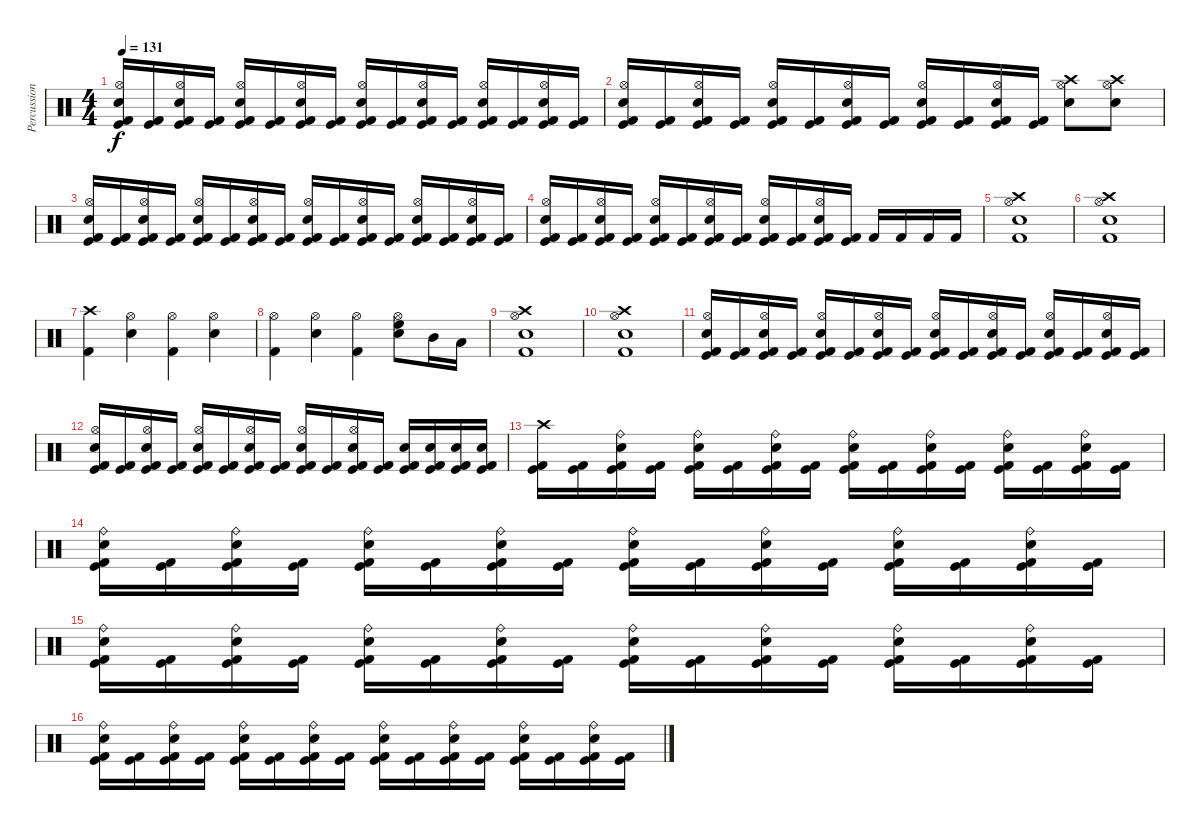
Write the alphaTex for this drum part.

\track ("Percussion" "Percussion") {instrument percussion}
\staff {score}
\articulation defaults
\ts (4 4)
\tempo 131
\clef neutral
\ks c
("Snare (hit) 2" "Hi-Hat (open)" "Kick (hit)" "Kick (hit) 2").16{dy f} ("Kick (hit)" "Kick (hit) 2").16 ("Snare (hit) 2" "Hi-Hat (open)" "Kick (hit)" "Kick (hit) 2").16 ("Kick (hit)" "Kick (hit) 2").16 ("Snare (hit) 2" "Hi-Hat (open)" "Kick (hit)" "Kick (hit) 2").16 ("Kick (hit)" "Kick (hit) 2").16 ("Snare (hit) 2" "Hi-Hat (open)" "Kick (hit)" "Kick (hit) 2").16 ("Kick (hit)" "Kick (hit) 2").16 ("Snare (hit) 2" "Hi-Hat (open)" "Kick (hit)" "Kick (hit) 2").16 ("Kick (hit)" "Kick (hit) 2").16 ("Snare (hit) 2" "Hi-Hat (open)" "Kick (hit)" "Kick (hit) 2").16 ("Kick (hit)" "Kick (hit) 2").16 ("Snare (hit) 2" "Hi-Hat (open)" "Kick (hit)" "Kick (hit) 2").16 ("Kick (hit)" "Kick (hit) 2").16 ("Snare (hit) 2" "Hi-Hat (open)" "Kick (hit)" "Kick (hit) 2").16 ("Kick (hit)" "Kick (hit) 2").16 |
("Snare (hit) 2" "Hi-Hat (open)" "Kick (hit)" "Kick (hit) 2").16 ("Kick (hit)" "Kick (hit) 2").16 ("Snare (hit) 2" "Hi-Hat (open)" "Kick (hit)" "Kick (hit) 2").16 ("Kick (hit)" "Kick (hit) 2").16 ("Snare (hit) 2" "Hi-Hat (open)" "Kick (hit)" "Kick (hit) 2").16 ("Kick (hit)" "Kick (hit) 2").16 ("Snare (hit) 2" "Hi-Hat (open)" "Kick (hit)" "Kick (hit) 2").16 ("Kick (hit)" "Kick (hit) 2").16 ("Snare (hit) 2" "Hi-Hat (open)" "Kick (hit)" "Kick (hit) 2").16 ("Kick (hit)" "Kick (hit) 2").16 ("Snare (hit) 2" "Hi-Hat (open)" "Kick (hit)" "Kick (hit) 2").16 ("Kick (hit)" "Kick (hit) 2").16 ("Hi-Hat (open)" "Crash high (hit)" "Snare (hit) 2").8 ("Hi-Hat (open)" "Crash high (hit)" "Snare (hit) 2").8 |
("Snare (hit) 2" "Hi-Hat (open)" "Kick (hit)" "Kick (hit) 2").16 ("Kick (hit)" "Kick (hit) 2").16 ("Snare (hit) 2" "Hi-Hat (open)" "Kick (hit)" "Kick (hit) 2").16 ("Kick (hit)" "Kick (hit) 2").16 ("Snare (hit) 2" "Hi-Hat (open)" "Kick (hit)" "Kick (hit) 2").16 ("Kick (hit)" "Kick (hit) 2").16 ("Snare (hit) 2" "Hi-Hat (open)" "Kick (hit)" "Kick (hit) 2").16 ("Kick (hit)" "Kick (hit) 2").16 ("Snare (hit) 2" "Hi-Hat (open)" "Kick (hit)" "Kick (hit) 2").16 ("Kick (hit)" "Kick (hit) 2").16 ("Snare (hit) 2" "Hi-Hat (open)" "Kick (hit)" "Kick (hit) 2").16 ("Kick (hit)" "Kick (hit) 2").16 ("Snare (hit) 2" "Hi-Hat (open)" "Kick (hit)" "Kick (hit) 2").16 ("Kick (hit)" "Kick (hit) 2").16 ("Snare (hit) 2" "Hi-Hat (open)" "Kick (hit)" "Kick (hit) 2").16 ("Kick (hit)" "Kick (hit) 2").16 |
("Snare (hit) 2" "Hi-Hat (open)" "Kick (hit)" "Kick (hit) 2").16 ("Kick (hit)" "Kick (hit) 2").16 ("Snare (hit) 2" "Hi-Hat (open)" "Kick (hit)" "Kick (hit) 2").16 ("Kick (hit)" "Kick (hit) 2").16 ("Snare (hit) 2" "Hi-Hat (open)" "Kick (hit)" "Kick (hit) 2").16 ("Kick (hit)" "Kick (hit) 2").16 ("Snare (hit) 2" "Hi-Hat (open)" "Kick (hit)" "Kick (hit) 2").16 ("Kick (hit)" "Kick (hit) 2").16 ("Snare (hit) 2" "Hi-Hat (open)" "Kick (hit)" "Kick (hit) 2").16 ("Kick (hit)" "Kick (hit) 2").16 ("Snare (hit) 2" "Hi-Hat (open)" "Kick (hit)" "Kick (hit) 2").16 ("Kick (hit)" "Kick (hit) 2").16 "Kick (hit) 2".16 "Kick (hit) 2".16 "Kick (hit) 2".16 "Kick (hit) 2".16 |
("Crash high (hit)" "Hi-Hat (open)" "Snare (hit) 2" "Kick (hit) 2").1 |
("Crash high (hit)" "Hi-Hat (open)" "Snare (hit) 2" "Kick (hit) 2").1 |
("Crash high (hit)" "Kick (hit) 2").4 ("Hi-Hat (open)" "Snare (hit) 2").4 ("Hi-Hat (open)" "Kick (hit) 2").4 ("Hi-Hat (open)" "Snare (hit) 2").4 |
("Hi-Hat (open)" "Kick (hit) 2").4 ("Hi-Hat (open)" "Snare (hit) 2").4 ("Hi-Hat (open)" "Kick (hit) 2").4 ("Hi-Hat (open)" "High Floor Tom (hit)" "Snare (hit) 2").8 "Mid Tom (hit)".16 "Low Tom (hit)".16 |
("Crash high (hit)" "Hi-Hat (open)" "Snare (hit) 2" "Kick (hit) 2").1 |
("Crash high (hit)" "Hi-Hat (open)" "Snare (hit) 2" "Kick (hit) 2").1 |
("Snare (hit) 2" "Hi-Hat (open)" "Kick (hit)" "Kick (hit) 2").16 ("Kick (hit)" "Kick (hit) 2").16 ("Snare (hit) 2" "Hi-Hat (open)" "Kick (hit)" "Kick (hit) 2").16 ("Kick (hit)" "Kick (hit) 2").16 ("Snare (hit) 2" "Hi-Hat (open)" "Kick (hit)" "Kick (hit) 2").16 ("Kick (hit)" "Kick (hit) 2").16 ("Snare (hit) 2" "Hi-Hat (open)" "Kick (hit)" "Kick (hit) 2").16 ("Kick (hit)" "Kick (hit) 2").16 ("Snare (hit) 2" "Hi-Hat (open)" "Kick (hit)" "Kick (hit) 2").16 ("Kick (hit)" "Kick (hit) 2").16 ("Snare (hit) 2" "Hi-Hat (open)" "Kick (hit)" "Kick (hit) 2").16 ("Kick (hit)" "Kick (hit) 2").16 ("Snare (hit) 2" "Hi-Hat (open)" "Kick (hit)" "Kick (hit) 2").16 ("Kick (hit)" "Kick (hit) 2").16 ("Snare (hit) 2" "Hi-Hat (open)" "Kick (hit)" "Kick (hit) 2").16 ("Kick (hit)" "Kick (hit) 2").16 |
("Snare (hit) 2" "Hi-Hat (open)" "Kick (hit)" "Kick (hit) 2").16 ("Kick (hit)" "Kick (hit) 2").16 ("Snare (hit) 2" "Hi-Hat (open)" "Kick (hit)" "Kick (hit) 2").16 ("Kick (hit)" "Kick (hit) 2").16 ("Snare (hit) 2" "Hi-Hat (open)" "Kick (hit)" "Kick (hit) 2").16 ("Kick (hit)" "Kick (hit) 2").16 ("Snare (hit) 2" "Hi-Hat (open)" "Kick (hit)" "Kick (hit) 2").16 ("Kick (hit)" "Kick (hit) 2").16 ("Snare (hit) 2" "Hi-Hat (open)" "Kick (hit)" "Kick (hit) 2").16 ("Kick (hit)" "Kick (hit) 2").16 ("Snare (hit) 2" "Hi-Hat (open)" "Kick (hit)" "Kick (hit) 2").16 ("Kick (hit)" "Kick (hit) 2").16 ("Snare (hit) 2" "Kick (hit)" "Kick (hit) 2").16 ("Snare (hit) 2" "Kick (hit)" "Kick (hit) 2").16 ("Snare (hit) 2" "Kick (hit)" "Kick (hit) 2").16 ("Snare (hit) 2" "Kick (hit)" "Kick (hit) 2").16 |
("Crash high (hit)" "Kick (hit)" "Kick (hit) 2").16 ("Kick (hit)" "Kick (hit) 2").16 ("Snare (hit) 2" "Ride (bell)" "Kick (hit)" "Kick (hit) 2").16 ("Kick (hit)" "Kick (hit) 2").16 ("Snare (hit) 2" "Ride (bell)" "Kick (hit)" "Kick (hit) 2").16 ("Kick (hit)" "Kick (hit) 2").16 ("Snare (hit) 2" "Ride (bell)" "Kick (hit)" "Kick (hit) 2").16 ("Kick (hit)" "Kick (hit) 2").16 ("Snare (hit) 2" "Ride (bell)" "Kick (hit)" "Kick (hit) 2").16 ("Kick (hit)" "Kick (hit) 2").16 ("Snare (hit) 2" "Ride (bell)" "Kick (hit)" "Kick (hit) 2").16 ("Kick (hit)" "Kick (hit) 2").16 ("Snare (hit) 2" "Ride (bell)" "Kick (hit)" "Kick (hit) 2").16 ("Kick (hit)" "Kick (hit) 2").16 ("Snare (hit) 2" "Ride (bell)" "Kick (hit)" "Kick (hit) 2").16 ("Kick (hit)" "Kick (hit) 2").16 |
("Snare (hit) 2" "Ride (bell)" "Kick (hit)" "Kick (hit) 2").16 ("Kick (hit)" "Kick (hit) 2").16 ("Snare (hit) 2" "Ride (bell)" "Kick (hit)" "Kick (hit) 2").16 ("Kick (hit)" "Kick (hit) 2").16 ("Snare (hit) 2" "Ride (bell)" "Kick (hit)" "Kick (hit) 2").16 ("Kick (hit)" "Kick (hit) 2").16 ("Snare (hit) 2" "Ride (bell)" "Kick (hit)" "Kick (hit) 2").16 ("Kick (hit)" "Kick (hit) 2").16 ("Snare (hit) 2" "Ride (bell)" "Kick (hit)" "Kick (hit) 2").16 ("Kick (hit)" "Kick (hit) 2").16 ("Snare (hit) 2" "Ride (bell)" "Kick (hit)" "Kick (hit) 2").16 ("Kick (hit)" "Kick (hit) 2").16 ("Snare (hit) 2" "Ride (bell)" "Kick (hit)" "Kick (hit) 2").16 ("Kick (hit)" "Kick (hit) 2").16 ("Snare (hit) 2" "Ride (bell)" "Kick (hit)" "Kick (hit) 2").16 ("Kick (hit)" "Kick (hit) 2").16 |
("Snare (hit) 2" "Ride (bell)" "Kick (hit)" "Kick (hit) 2").16 ("Kick (hit)" "Kick (hit) 2").16 ("Snare (hit) 2" "Ride (bell)" "Kick (hit)" "Kick (hit) 2").16 ("Kick (hit)" "Kick (hit) 2").16 ("Snare (hit) 2" "Ride (bell)" "Kick (hit)" "Kick (hit) 2").16 ("Kick (hit)" "Kick (hit) 2").16 ("Snare (hit) 2" "Ride (bell)" "Kick (hit)" "Kick (hit) 2").16 ("Kick (hit)" "Kick (hit) 2").16 ("Snare (hit) 2" "Ride (bell)" "Kick (hit)" "Kick (hit) 2").16 ("Kick (hit)" "Kick (hit) 2").16 ("Snare (hit) 2" "Ride (bell)" "Kick (hit)" "Kick (hit) 2").16 ("Kick (hit)" "Kick (hit) 2").16 ("Snare (hit) 2" "Ride (bell)" "Kick (hit)" "Kick (hit) 2").16 ("Kick (hit)" "Kick (hit) 2").16 ("Snare (hit) 2" "Ride (bell)" "Kick (hit)" "Kick (hit) 2").16 ("Kick (hit)" "Kick (hit) 2").16 |
("Snare (hit) 2" "Ride (bell)" "Kick (hit)" "Kick (hit) 2").16 ("Kick (hit)" "Kick (hit) 2").16 ("Snare (hit) 2" "Ride (bell)" "Kick (hit)" "Kick (hit) 2").16 ("Kick (hit)" "Kick (hit) 2").16 ("Snare (hit) 2" "Ride (bell)" "Kick (hit)" "Kick (hit) 2").16 ("Kick (hit)" "Kick (hit) 2").16 ("Snare (hit) 2" "Ride (bell)" "Kick (hit)" "Kick (hit) 2").16 ("Kick (hit)" "Kick (hit) 2").16 ("Snare (hit) 2" "Ride (bell)" "Kick (hit)" "Kick (hit) 2").16 ("Kick (hit)" "Kick (hit) 2").16 ("Snare (hit) 2" "Ride (bell)" "Kick (hit)" "Kick (hit) 2").16 ("Kick (hit)" "Kick (hit) 2").16 ("Snare (hit) 2" "Ride (bell)" "Kick (hit)" "Kick (hit) 2").16 ("Kick (hit)" "Kick (hit) 2").16 ("Snare (hit) 2" "Ride (bell)" "Kick (hit)" "Kick (hit) 2").16 ("Kick (hit)" "Kick (hit) 2").16
